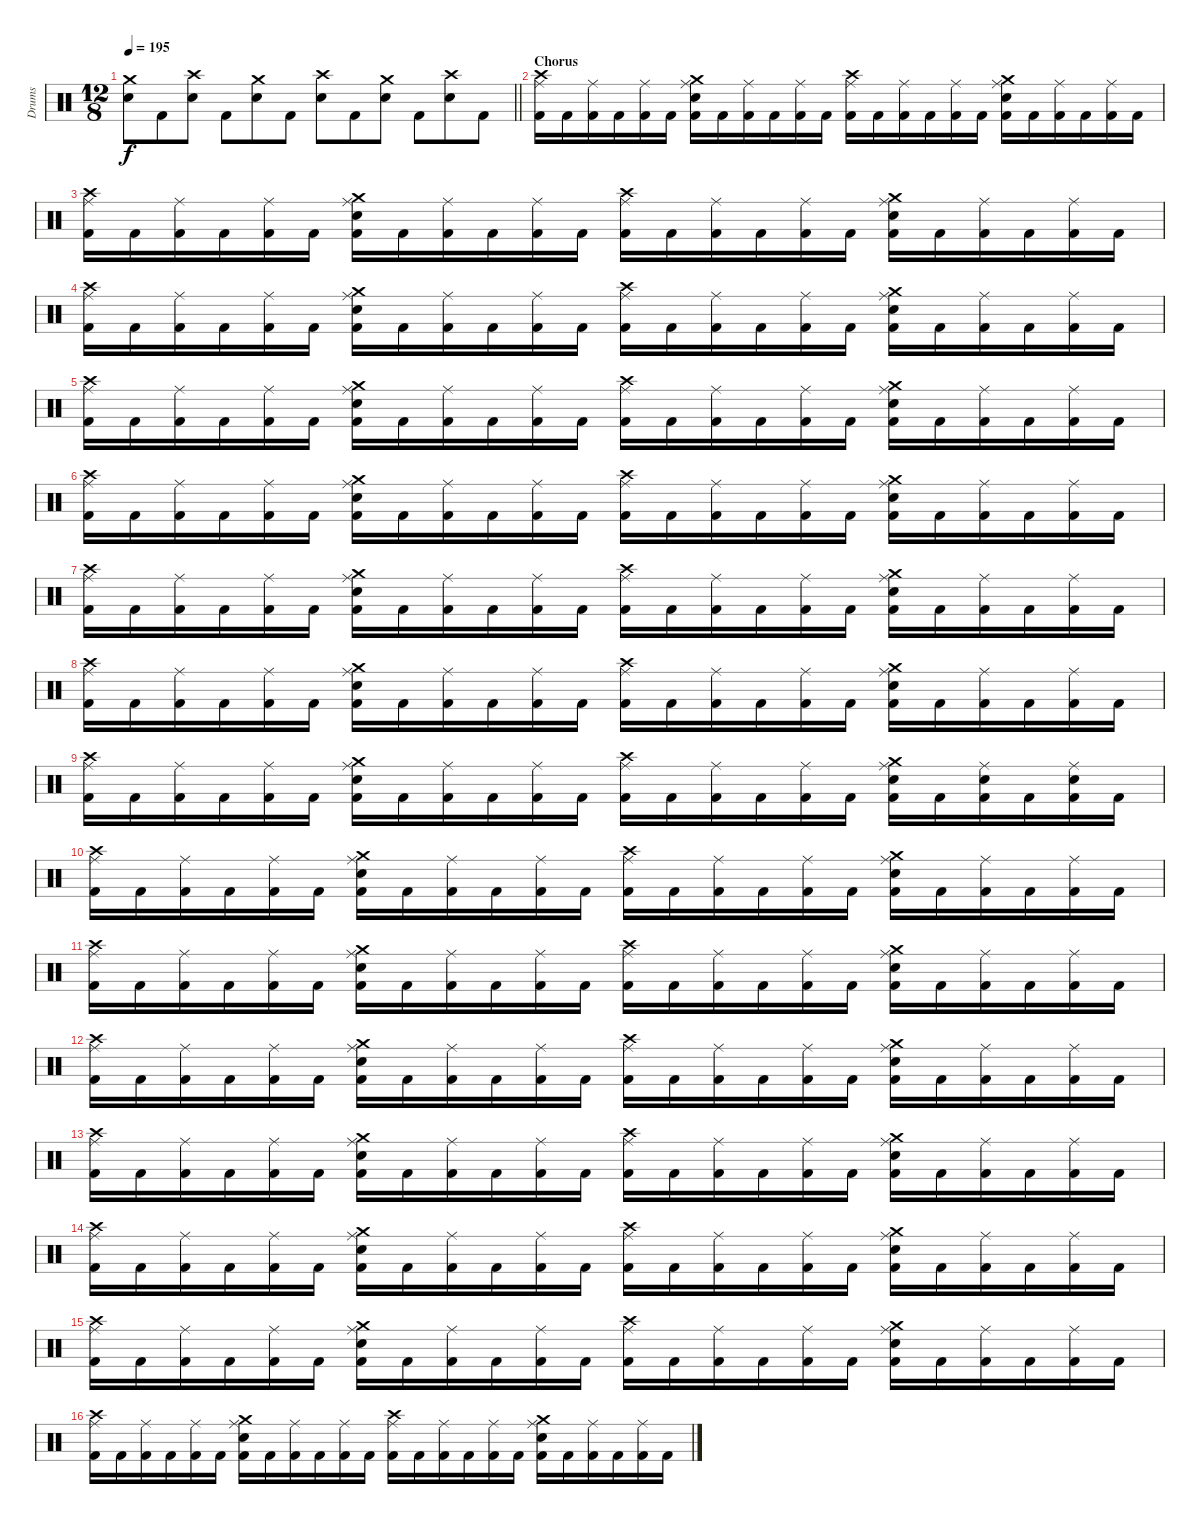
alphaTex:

\track ("Drums" "Drums") {instrument percussion}
\staff {score}
\articulation defaults
\ts (12 8)
\tempo 195
\clef neutral
\barLineRight lightlight
\ks c
("Crash medium (hit)" "Snare (hit) 2").8{dy f} "Kick (hit) 2".8 ("Crash high (hit)" "Snare (hit) 2").8 "Kick (hit) 2".8 ("Crash medium (hit)" "Snare (hit) 2").8 "Kick (hit) 2".8 ("Crash high (hit)" "Snare (hit) 2").8 "Kick (hit) 2".8 ("Crash medium (hit)" "Snare (hit) 2").8 "Kick (hit) 2".8 ("Crash high (hit)" "Snare (hit) 2").8 "Kick (hit) 2".8 |
\section ("" "Chorus")
("Crash high (hit)" "Ride (middle)" "Kick (hit) 2").16 "Kick (hit) 2".16 ("Ride (middle)" "Kick (hit) 2").16 "Kick (hit) 2".16 ("Ride (middle)" "Kick (hit) 2").16 "Kick (hit) 2".16 ("Crash medium (hit)" "Ride (middle)" "Snare (hit) 2" "Kick (hit) 2").16 "Kick (hit) 2".16 ("Ride (middle)" "Kick (hit) 2").16 "Kick (hit) 2".16 ("Ride (middle)" "Kick (hit) 2").16 "Kick (hit) 2".16 ("Crash high (hit)" "Ride (middle)" "Kick (hit) 2").16 "Kick (hit) 2".16 ("Ride (middle)" "Kick (hit) 2").16 "Kick (hit) 2".16 ("Ride (middle)" "Kick (hit) 2").16 "Kick (hit) 2".16 ("Crash medium (hit)" "Ride (middle)" "Snare (hit) 2" "Kick (hit) 2").16 "Kick (hit) 2".16 ("Ride (middle)" "Kick (hit) 2").16 "Kick (hit) 2".16 ("Ride (middle)" "Kick (hit) 2").16 "Kick (hit) 2".16 |
("Crash high (hit)" "Ride (middle)" "Kick (hit) 2").16 "Kick (hit) 2".16 ("Ride (middle)" "Kick (hit) 2").16 "Kick (hit) 2".16 ("Ride (middle)" "Kick (hit) 2").16 "Kick (hit) 2".16 ("Crash medium (hit)" "Ride (middle)" "Snare (hit) 2" "Kick (hit) 2").16 "Kick (hit) 2".16 ("Ride (middle)" "Kick (hit) 2").16 "Kick (hit) 2".16 ("Ride (middle)" "Kick (hit) 2").16 "Kick (hit) 2".16 ("Crash high (hit)" "Ride (middle)" "Kick (hit) 2").16 "Kick (hit) 2".16 ("Ride (middle)" "Kick (hit) 2").16 "Kick (hit) 2".16 ("Ride (middle)" "Kick (hit) 2").16 "Kick (hit) 2".16 ("Crash medium (hit)" "Ride (middle)" "Snare (hit) 2" "Kick (hit) 2").16 "Kick (hit) 2".16 ("Ride (middle)" "Kick (hit) 2").16 "Kick (hit) 2".16 ("Ride (middle)" "Kick (hit) 2").16 "Kick (hit) 2".16 |
("Crash high (hit)" "Ride (middle)" "Kick (hit) 2").16 "Kick (hit) 2".16 ("Ride (middle)" "Kick (hit) 2").16 "Kick (hit) 2".16 ("Ride (middle)" "Kick (hit) 2").16 "Kick (hit) 2".16 ("Crash medium (hit)" "Ride (middle)" "Snare (hit) 2" "Kick (hit) 2").16 "Kick (hit) 2".16 ("Ride (middle)" "Kick (hit) 2").16 "Kick (hit) 2".16 ("Ride (middle)" "Kick (hit) 2").16 "Kick (hit) 2".16 ("Crash high (hit)" "Ride (middle)" "Kick (hit) 2").16 "Kick (hit) 2".16 ("Ride (middle)" "Kick (hit) 2").16 "Kick (hit) 2".16 ("Ride (middle)" "Kick (hit) 2").16 "Kick (hit) 2".16 ("Crash medium (hit)" "Ride (middle)" "Snare (hit) 2" "Kick (hit) 2").16 "Kick (hit) 2".16 ("Ride (middle)" "Kick (hit) 2").16 "Kick (hit) 2".16 ("Ride (middle)" "Kick (hit) 2").16 "Kick (hit) 2".16 |
("Crash high (hit)" "Ride (middle)" "Kick (hit) 2").16 "Kick (hit) 2".16 ("Ride (middle)" "Kick (hit) 2").16 "Kick (hit) 2".16 ("Ride (middle)" "Kick (hit) 2").16 "Kick (hit) 2".16 ("Crash medium (hit)" "Ride (middle)" "Snare (hit) 2" "Kick (hit) 2").16 "Kick (hit) 2".16 ("Ride (middle)" "Kick (hit) 2").16 "Kick (hit) 2".16 ("Ride (middle)" "Kick (hit) 2").16 "Kick (hit) 2".16 ("Crash high (hit)" "Ride (middle)" "Kick (hit) 2").16 "Kick (hit) 2".16 ("Ride (middle)" "Kick (hit) 2").16 "Kick (hit) 2".16 ("Ride (middle)" "Kick (hit) 2").16 "Kick (hit) 2".16 ("Crash medium (hit)" "Ride (middle)" "Snare (hit) 2" "Kick (hit) 2").16 "Kick (hit) 2".16 ("Ride (middle)" "Kick (hit) 2").16 "Kick (hit) 2".16 ("Ride (middle)" "Kick (hit) 2").16 "Kick (hit) 2".16 |
("Crash high (hit)" "Ride (middle)" "Kick (hit) 2").16 "Kick (hit) 2".16 ("Ride (middle)" "Kick (hit) 2").16 "Kick (hit) 2".16 ("Ride (middle)" "Kick (hit) 2").16 "Kick (hit) 2".16 ("Crash medium (hit)" "Ride (middle)" "Snare (hit) 2" "Kick (hit) 2").16 "Kick (hit) 2".16 ("Ride (middle)" "Kick (hit) 2").16 "Kick (hit) 2".16 ("Ride (middle)" "Kick (hit) 2").16 "Kick (hit) 2".16 ("Crash high (hit)" "Ride (middle)" "Kick (hit) 2").16 "Kick (hit) 2".16 ("Ride (middle)" "Kick (hit) 2").16 "Kick (hit) 2".16 ("Ride (middle)" "Kick (hit) 2").16 "Kick (hit) 2".16 ("Crash medium (hit)" "Ride (middle)" "Snare (hit) 2" "Kick (hit) 2").16 "Kick (hit) 2".16 ("Ride (middle)" "Kick (hit) 2").16 "Kick (hit) 2".16 ("Ride (middle)" "Kick (hit) 2").16 "Kick (hit) 2".16 |
("Crash high (hit)" "Ride (middle)" "Kick (hit) 2").16 "Kick (hit) 2".16 ("Ride (middle)" "Kick (hit) 2").16 "Kick (hit) 2".16 ("Ride (middle)" "Kick (hit) 2").16 "Kick (hit) 2".16 ("Crash medium (hit)" "Ride (middle)" "Snare (hit) 2" "Kick (hit) 2").16 "Kick (hit) 2".16 ("Ride (middle)" "Kick (hit) 2").16 "Kick (hit) 2".16 ("Ride (middle)" "Kick (hit) 2").16 "Kick (hit) 2".16 ("Crash high (hit)" "Ride (middle)" "Kick (hit) 2").16 "Kick (hit) 2".16 ("Ride (middle)" "Kick (hit) 2").16 "Kick (hit) 2".16 ("Ride (middle)" "Kick (hit) 2").16 "Kick (hit) 2".16 ("Crash medium (hit)" "Ride (middle)" "Snare (hit) 2" "Kick (hit) 2").16 "Kick (hit) 2".16 ("Ride (middle)" "Kick (hit) 2").16 "Kick (hit) 2".16 ("Ride (middle)" "Kick (hit) 2").16 "Kick (hit) 2".16 |
("Crash high (hit)" "Ride (middle)" "Kick (hit) 2").16 "Kick (hit) 2".16 ("Ride (middle)" "Kick (hit) 2").16 "Kick (hit) 2".16 ("Ride (middle)" "Kick (hit) 2").16 "Kick (hit) 2".16 ("Crash medium (hit)" "Ride (middle)" "Snare (hit) 2" "Kick (hit) 2").16 "Kick (hit) 2".16 ("Ride (middle)" "Kick (hit) 2").16 "Kick (hit) 2".16 ("Ride (middle)" "Kick (hit) 2").16 "Kick (hit) 2".16 ("Crash high (hit)" "Ride (middle)" "Kick (hit) 2").16 "Kick (hit) 2".16 ("Ride (middle)" "Kick (hit) 2").16 "Kick (hit) 2".16 ("Ride (middle)" "Kick (hit) 2").16 "Kick (hit) 2".16 ("Crash medium (hit)" "Ride (middle)" "Snare (hit) 2" "Kick (hit) 2").16 "Kick (hit) 2".16 ("Ride (middle)" "Kick (hit) 2").16 "Kick (hit) 2".16 ("Ride (middle)" "Kick (hit) 2").16 "Kick (hit) 2".16 |
("Crash high (hit)" "Ride (middle)" "Kick (hit) 2").16 "Kick (hit) 2".16 ("Ride (middle)" "Kick (hit) 2").16 "Kick (hit) 2".16 ("Ride (middle)" "Kick (hit) 2").16 "Kick (hit) 2".16 ("Crash medium (hit)" "Ride (middle)" "Snare (hit) 2" "Kick (hit) 2").16 "Kick (hit) 2".16 ("Ride (middle)" "Kick (hit) 2").16 "Kick (hit) 2".16 ("Ride (middle)" "Kick (hit) 2").16 "Kick (hit) 2".16 ("Crash high (hit)" "Ride (middle)" "Kick (hit) 2").16 "Kick (hit) 2".16 ("Ride (middle)" "Kick (hit) 2").16 "Kick (hit) 2".16 ("Ride (middle)" "Kick (hit) 2").16 "Kick (hit) 2".16 ("Crash medium (hit)" "Ride (middle)" "Snare (hit) 2" "Kick (hit) 2").16 "Kick (hit) 2".16 ("Ride (middle)" "Snare (hit) 2" "Kick (hit) 2").16 "Kick (hit) 2".16 ("Ride (middle)" "Snare (hit) 2" "Kick (hit) 2").16 "Kick (hit) 2".16 |
("Crash high (hit)" "Ride (middle)" "Kick (hit) 2").16 "Kick (hit) 2".16 ("Ride (middle)" "Kick (hit) 2").16 "Kick (hit) 2".16 ("Ride (middle)" "Kick (hit) 2").16 "Kick (hit) 2".16 ("Crash medium (hit)" "Ride (middle)" "Snare (hit) 2" "Kick (hit) 2").16 "Kick (hit) 2".16 ("Ride (middle)" "Kick (hit) 2").16 "Kick (hit) 2".16 ("Ride (middle)" "Kick (hit) 2").16 "Kick (hit) 2".16 ("Crash high (hit)" "Ride (middle)" "Kick (hit) 2").16 "Kick (hit) 2".16 ("Ride (middle)" "Kick (hit) 2").16 "Kick (hit) 2".16 ("Ride (middle)" "Kick (hit) 2").16 "Kick (hit) 2".16 ("Crash medium (hit)" "Ride (middle)" "Snare (hit) 2" "Kick (hit) 2").16 "Kick (hit) 2".16 ("Ride (middle)" "Kick (hit) 2").16 "Kick (hit) 2".16 ("Ride (middle)" "Kick (hit) 2").16 "Kick (hit) 2".16 |
("Crash high (hit)" "Ride (middle)" "Kick (hit) 2").16 "Kick (hit) 2".16 ("Ride (middle)" "Kick (hit) 2").16 "Kick (hit) 2".16 ("Ride (middle)" "Kick (hit) 2").16 "Kick (hit) 2".16 ("Crash medium (hit)" "Ride (middle)" "Snare (hit) 2" "Kick (hit) 2").16 "Kick (hit) 2".16 ("Ride (middle)" "Kick (hit) 2").16 "Kick (hit) 2".16 ("Ride (middle)" "Kick (hit) 2").16 "Kick (hit) 2".16 ("Crash high (hit)" "Ride (middle)" "Kick (hit) 2").16 "Kick (hit) 2".16 ("Ride (middle)" "Kick (hit) 2").16 "Kick (hit) 2".16 ("Ride (middle)" "Kick (hit) 2").16 "Kick (hit) 2".16 ("Crash medium (hit)" "Ride (middle)" "Snare (hit) 2" "Kick (hit) 2").16 "Kick (hit) 2".16 ("Ride (middle)" "Kick (hit) 2").16 "Kick (hit) 2".16 ("Ride (middle)" "Kick (hit) 2").16 "Kick (hit) 2".16 |
("Crash high (hit)" "Ride (middle)" "Kick (hit) 2").16 "Kick (hit) 2".16 ("Ride (middle)" "Kick (hit) 2").16 "Kick (hit) 2".16 ("Ride (middle)" "Kick (hit) 2").16 "Kick (hit) 2".16 ("Crash medium (hit)" "Ride (middle)" "Snare (hit) 2" "Kick (hit) 2").16 "Kick (hit) 2".16 ("Ride (middle)" "Kick (hit) 2").16 "Kick (hit) 2".16 ("Ride (middle)" "Kick (hit) 2").16 "Kick (hit) 2".16 ("Crash high (hit)" "Ride (middle)" "Kick (hit) 2").16 "Kick (hit) 2".16 ("Ride (middle)" "Kick (hit) 2").16 "Kick (hit) 2".16 ("Ride (middle)" "Kick (hit) 2").16 "Kick (hit) 2".16 ("Crash medium (hit)" "Ride (middle)" "Snare (hit) 2" "Kick (hit) 2").16 "Kick (hit) 2".16 ("Ride (middle)" "Kick (hit) 2").16 "Kick (hit) 2".16 ("Ride (middle)" "Kick (hit) 2").16 "Kick (hit) 2".16 |
("Crash high (hit)" "Ride (middle)" "Kick (hit) 2").16 "Kick (hit) 2".16 ("Ride (middle)" "Kick (hit) 2").16 "Kick (hit) 2".16 ("Ride (middle)" "Kick (hit) 2").16 "Kick (hit) 2".16 ("Crash medium (hit)" "Ride (middle)" "Snare (hit) 2" "Kick (hit) 2").16 "Kick (hit) 2".16 ("Ride (middle)" "Kick (hit) 2").16 "Kick (hit) 2".16 ("Ride (middle)" "Kick (hit) 2").16 "Kick (hit) 2".16 ("Crash high (hit)" "Ride (middle)" "Kick (hit) 2").16 "Kick (hit) 2".16 ("Ride (middle)" "Kick (hit) 2").16 "Kick (hit) 2".16 ("Ride (middle)" "Kick (hit) 2").16 "Kick (hit) 2".16 ("Crash medium (hit)" "Ride (middle)" "Snare (hit) 2" "Kick (hit) 2").16 "Kick (hit) 2".16 ("Ride (middle)" "Kick (hit) 2").16 "Kick (hit) 2".16 ("Ride (middle)" "Kick (hit) 2").16 "Kick (hit) 2".16 |
("Crash high (hit)" "Ride (middle)" "Kick (hit) 2").16 "Kick (hit) 2".16 ("Ride (middle)" "Kick (hit) 2").16 "Kick (hit) 2".16 ("Ride (middle)" "Kick (hit) 2").16 "Kick (hit) 2".16 ("Crash medium (hit)" "Ride (middle)" "Snare (hit) 2" "Kick (hit) 2").16 "Kick (hit) 2".16 ("Ride (middle)" "Kick (hit) 2").16 "Kick (hit) 2".16 ("Ride (middle)" "Kick (hit) 2").16 "Kick (hit) 2".16 ("Crash high (hit)" "Ride (middle)" "Kick (hit) 2").16 "Kick (hit) 2".16 ("Ride (middle)" "Kick (hit) 2").16 "Kick (hit) 2".16 ("Ride (middle)" "Kick (hit) 2").16 "Kick (hit) 2".16 ("Crash medium (hit)" "Ride (middle)" "Snare (hit) 2" "Kick (hit) 2").16 "Kick (hit) 2".16 ("Ride (middle)" "Kick (hit) 2").16 "Kick (hit) 2".16 ("Ride (middle)" "Kick (hit) 2").16 "Kick (hit) 2".16 |
("Crash high (hit)" "Ride (middle)" "Kick (hit) 2").16 "Kick (hit) 2".16 ("Ride (middle)" "Kick (hit) 2").16 "Kick (hit) 2".16 ("Ride (middle)" "Kick (hit) 2").16 "Kick (hit) 2".16 ("Crash medium (hit)" "Ride (middle)" "Snare (hit) 2" "Kick (hit) 2").16 "Kick (hit) 2".16 ("Ride (middle)" "Kick (hit) 2").16 "Kick (hit) 2".16 ("Ride (middle)" "Kick (hit) 2").16 "Kick (hit) 2".16 ("Crash high (hit)" "Ride (middle)" "Kick (hit) 2").16 "Kick (hit) 2".16 ("Ride (middle)" "Kick (hit) 2").16 "Kick (hit) 2".16 ("Ride (middle)" "Kick (hit) 2").16 "Kick (hit) 2".16 ("Crash medium (hit)" "Ride (middle)" "Snare (hit) 2" "Kick (hit) 2").16 "Kick (hit) 2".16 ("Ride (middle)" "Kick (hit) 2").16 "Kick (hit) 2".16 ("Ride (middle)" "Kick (hit) 2").16 "Kick (hit) 2".16 |
("Crash high (hit)" "Ride (middle)" "Kick (hit) 2").16 "Kick (hit) 2".16 ("Ride (middle)" "Kick (hit) 2").16 "Kick (hit) 2".16 ("Ride (middle)" "Kick (hit) 2").16 "Kick (hit) 2".16 ("Crash medium (hit)" "Ride (middle)" "Snare (hit) 2" "Kick (hit) 2").16 "Kick (hit) 2".16 ("Ride (middle)" "Kick (hit) 2").16 "Kick (hit) 2".16 ("Ride (middle)" "Kick (hit) 2").16 "Kick (hit) 2".16 ("Crash high (hit)" "Ride (middle)" "Kick (hit) 2").16 "Kick (hit) 2".16 ("Ride (middle)" "Kick (hit) 2").16 "Kick (hit) 2".16 ("Ride (middle)" "Kick (hit) 2").16 "Kick (hit) 2".16 ("Crash medium (hit)" "Ride (middle)" "Snare (hit) 2" "Kick (hit) 2").16 "Kick (hit) 2".16 ("Ride (middle)" "Kick (hit) 2").16 "Kick (hit) 2".16 ("Ride (middle)" "Kick (hit) 2").16 "Kick (hit) 2".16
